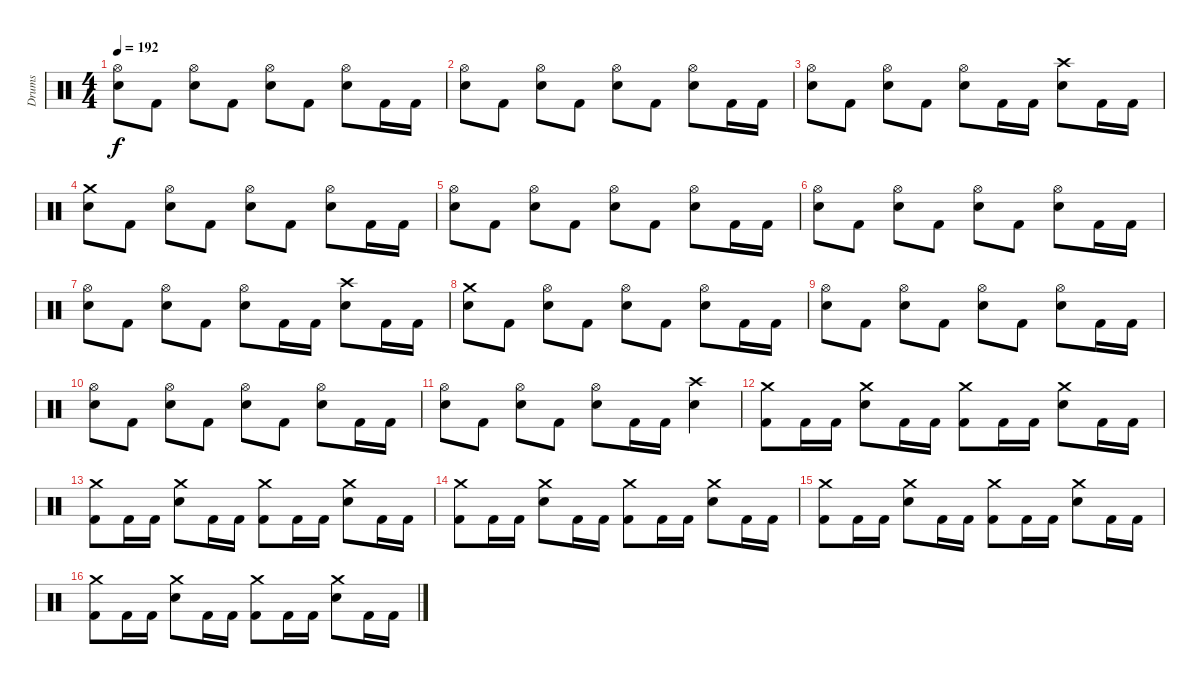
\track ("Drums" "Drums") {instrument percussion}
\staff {score}
\articulation defaults
\ts (4 4)
\tempo 192
\clef neutral
\ks c
("Hi-Hat (open)" "Electric Snare (hit)").8{dy f} "Kick (hit) 2".8 ("Hi-Hat (open)" "Electric Snare (hit)").8 "Kick (hit) 2".8 ("Hi-Hat (open)" "Electric Snare (hit)").8 "Kick (hit) 2".8 ("Hi-Hat (open)" "Electric Snare (hit)").8 "Kick (hit) 2".16 "Kick (hit) 2".16 |
("Hi-Hat (open)" "Electric Snare (hit)").8 "Kick (hit) 2".8 ("Hi-Hat (open)" "Electric Snare (hit)").8 "Kick (hit) 2".8 ("Hi-Hat (open)" "Electric Snare (hit)").8 "Kick (hit) 2".8 ("Hi-Hat (open)" "Electric Snare (hit)").8 "Kick (hit) 2".16 "Kick (hit) 2".16 |
("Hi-Hat (open)" "Electric Snare (hit)").8 "Kick (hit) 2".8 ("Hi-Hat (open)" "Electric Snare (hit)").8 "Kick (hit) 2".8 ("Hi-Hat (open)" "Electric Snare (hit)").8 "Kick (hit) 2".16 "Kick (hit) 2".16 ("Crash high (hit)" "Electric Snare (hit)").8 "Kick (hit) 2".16 "Kick (hit) 2".16 |
("Crash medium (hit)" "Electric Snare (hit)").8 "Kick (hit) 2".8 ("Hi-Hat (open)" "Electric Snare (hit)").8 "Kick (hit) 2".8 ("Hi-Hat (open)" "Electric Snare (hit)").8 "Kick (hit) 2".8 ("Hi-Hat (open)" "Electric Snare (hit)").8 "Kick (hit) 2".16 "Kick (hit) 2".16 |
("Hi-Hat (open)" "Electric Snare (hit)").8 "Kick (hit) 2".8 ("Hi-Hat (open)" "Electric Snare (hit)").8 "Kick (hit) 2".8 ("Hi-Hat (open)" "Electric Snare (hit)").8 "Kick (hit) 2".8 ("Hi-Hat (open)" "Electric Snare (hit)").8 "Kick (hit) 2".16 "Kick (hit) 2".16 |
("Hi-Hat (open)" "Electric Snare (hit)").8 "Kick (hit) 2".8 ("Hi-Hat (open)" "Electric Snare (hit)").8 "Kick (hit) 2".8 ("Hi-Hat (open)" "Electric Snare (hit)").8 "Kick (hit) 2".8 ("Hi-Hat (open)" "Electric Snare (hit)").8 "Kick (hit) 2".16 "Kick (hit) 2".16 |
("Hi-Hat (open)" "Electric Snare (hit)").8 "Kick (hit) 2".8 ("Hi-Hat (open)" "Electric Snare (hit)").8 "Kick (hit) 2".8 ("Hi-Hat (open)" "Electric Snare (hit)").8 "Kick (hit) 2".16 "Kick (hit) 2".16 ("Crash high (hit)" "Electric Snare (hit)").8 "Kick (hit) 2".16 "Kick (hit) 2".16 |
("Crash medium (hit)" "Electric Snare (hit)").8 "Kick (hit) 2".8 ("Hi-Hat (open)" "Electric Snare (hit)").8 "Kick (hit) 2".8 ("Hi-Hat (open)" "Electric Snare (hit)").8 "Kick (hit) 2".8 ("Hi-Hat (open)" "Electric Snare (hit)").8 "Kick (hit) 2".16 "Kick (hit) 2".16 |
("Hi-Hat (open)" "Electric Snare (hit)").8 "Kick (hit) 2".8 ("Hi-Hat (open)" "Electric Snare (hit)").8 "Kick (hit) 2".8 ("Hi-Hat (open)" "Electric Snare (hit)").8 "Kick (hit) 2".8 ("Hi-Hat (open)" "Electric Snare (hit)").8 "Kick (hit) 2".16 "Kick (hit) 2".16 |
("Hi-Hat (open)" "Electric Snare (hit)").8 "Kick (hit) 2".8 ("Hi-Hat (open)" "Electric Snare (hit)").8 "Kick (hit) 2".8 ("Hi-Hat (open)" "Electric Snare (hit)").8 "Kick (hit) 2".8 ("Hi-Hat (open)" "Electric Snare (hit)").8 "Kick (hit) 2".16 "Kick (hit) 2".16 |
("Hi-Hat (open)" "Electric Snare (hit)").8 "Kick (hit) 2".8 ("Hi-Hat (open)" "Electric Snare (hit)").8 "Kick (hit) 2".8 ("Hi-Hat (open)" "Electric Snare (hit)").8 "Kick (hit) 2".16 "Kick (hit) 2".16 ("Crash high (hit)" "Electric Snare (hit)").4 |
("Crash medium (hit)" "Kick (hit) 2").8 "Kick (hit) 2".16 "Kick (hit) 2".16 ("Crash medium (hit)" "Electric Snare (hit)").8 "Kick (hit) 2".16 "Kick (hit) 2".16 ("Crash medium (hit)" "Kick (hit) 2").8 "Kick (hit) 2".16 "Kick (hit) 2".16 ("Crash medium (hit)" "Electric Snare (hit)").8 "Kick (hit) 2".16 "Kick (hit) 2".16 |
("Crash medium (hit)" "Kick (hit) 2").8 "Kick (hit) 2".16 "Kick (hit) 2".16 ("Crash medium (hit)" "Electric Snare (hit)").8 "Kick (hit) 2".16 "Kick (hit) 2".16 ("Crash medium (hit)" "Kick (hit) 2").8 "Kick (hit) 2".16 "Kick (hit) 2".16 ("Crash medium (hit)" "Electric Snare (hit)").8 "Kick (hit) 2".16 "Kick (hit) 2".16 |
("Crash medium (hit)" "Kick (hit) 2").8 "Kick (hit) 2".16 "Kick (hit) 2".16 ("Crash medium (hit)" "Electric Snare (hit)").8 "Kick (hit) 2".16 "Kick (hit) 2".16 ("Crash medium (hit)" "Kick (hit) 2").8 "Kick (hit) 2".16 "Kick (hit) 2".16 ("Crash medium (hit)" "Electric Snare (hit)").8 "Kick (hit) 2".16 "Kick (hit) 2".16 |
("Crash medium (hit)" "Kick (hit) 2").8 "Kick (hit) 2".16 "Kick (hit) 2".16 ("Crash medium (hit)" "Electric Snare (hit)").8 "Kick (hit) 2".16 "Kick (hit) 2".16 ("Crash medium (hit)" "Kick (hit) 2").8 "Kick (hit) 2".16 "Kick (hit) 2".16 ("Crash medium (hit)" "Electric Snare (hit)").8 "Kick (hit) 2".16 "Kick (hit) 2".16 |
("Crash medium (hit)" "Kick (hit) 2").8 "Kick (hit) 2".16 "Kick (hit) 2".16 ("Crash medium (hit)" "Electric Snare (hit)").8 "Kick (hit) 2".16 "Kick (hit) 2".16 ("Crash medium (hit)" "Kick (hit) 2").8 "Kick (hit) 2".16 "Kick (hit) 2".16 ("Crash medium (hit)" "Electric Snare (hit)").8 "Kick (hit) 2".16 "Kick (hit) 2".16
